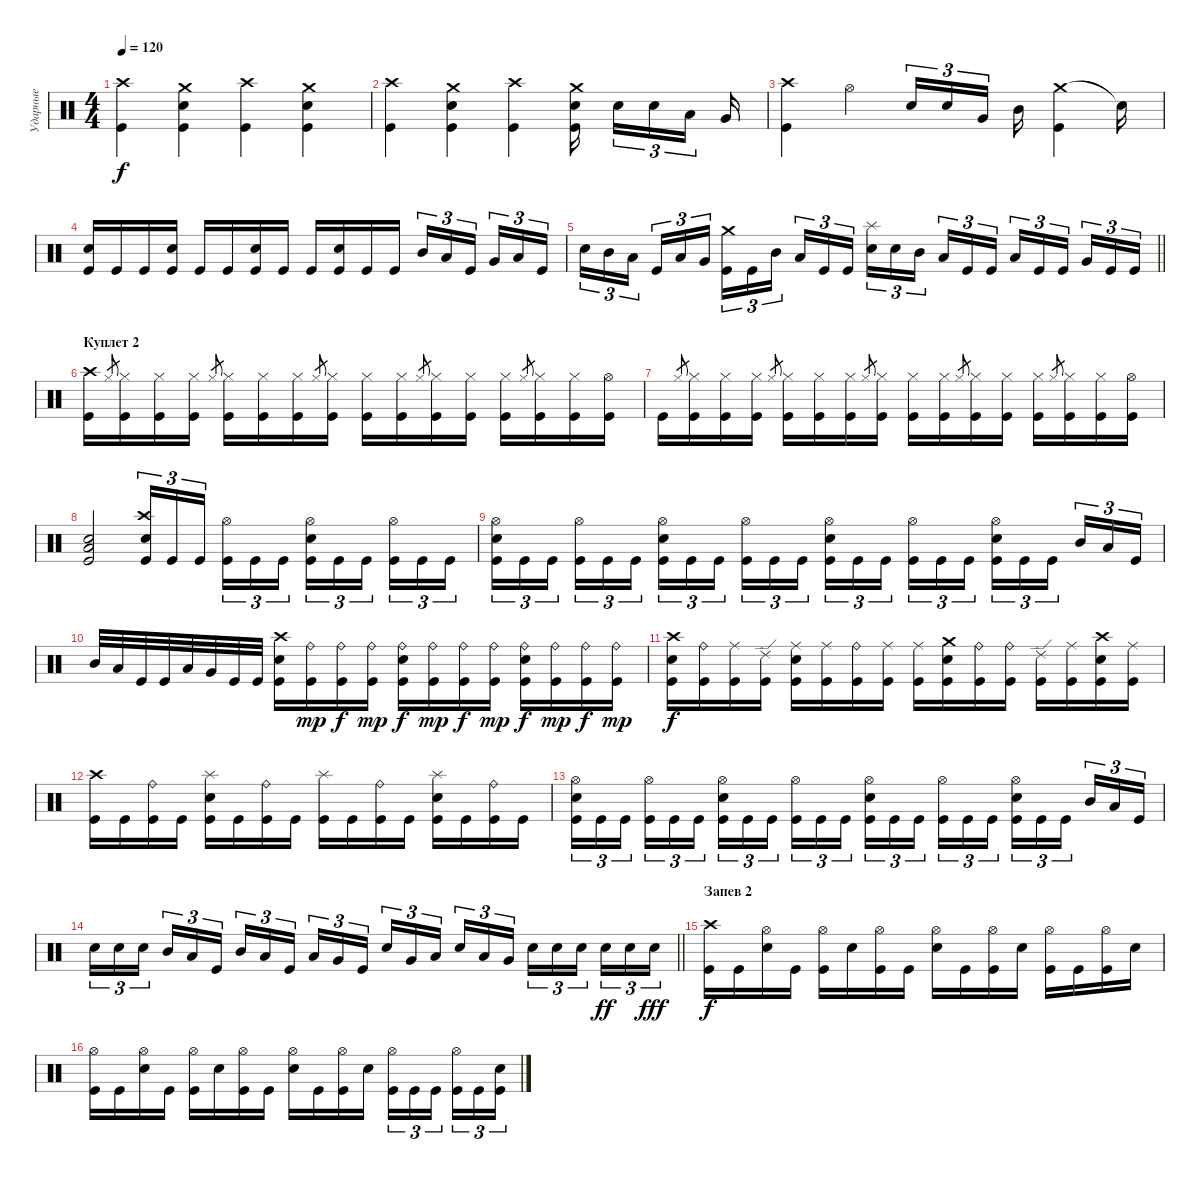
\track ("Ударные" "Ударные") {instrument percussion}
\staff {score}
\articulation defaults
\ts (4 4)
\tempo 120
\clef neutral
\ks c
("Kick (hit)" "Crash high (hit)").4{dy f} ("Kick (hit)" "Snare (hit) 2" "Crash medium (hit)").4 ("Kick (hit)" "Crash high (hit)").4 ("Kick (hit)" "Snare (hit) 2" "Crash medium (hit)").4 |
("Kick (hit)" "Crash high (hit)").4 ("Kick (hit)" "Snare (hit) 2" "Crash medium (hit)").4 ("Kick (hit)" "Crash high (hit)").4 ("Kick (hit)" "Snare (hit) 2" "Crash medium (hit)").16 "Snare (hit) 2".16{tu (3 2)} "Snare (hit) 2".16{tu (3 2)} "Low Tom (hit)".16{tu (3 2)} "Very Low Tom (hit)".16 |
("Kick (hit)" "Crash high (hit)").4 "Hi-Hat (open)".4 "Snare (hit) 2".16{tu (3 2)} "Snare (hit) 2".16{tu (3 2)} "Very Low Tom (hit)".16{tu (3 2)} "Mid Tom (hit)".16 ("Crash medium (hit)" "Kick (hit)").4 "Snare (hit)"{t}.16 |
("Kick (hit)" "Snare (hit) 2").16 "Kick (hit)".16 "Kick (hit)".16 ("Kick (hit)" "Snare (hit) 2").16 "Kick (hit)".16 "Kick (hit)".16 ("Kick (hit)" "Snare (hit) 2").16 "Kick (hit)".16 "Kick (hit)".16 ("Kick (hit)" "Snare (hit) 2").16 "Kick (hit)".16 "Kick (hit)".16 "Mid Tom (hit)".16{tu (3 2)} "Low Tom (hit)".16{tu (3 2)} "Kick (hit)".16{tu (3 2)} "Very Low Tom (hit)".16{tu (3 2)} "Low Floor Tom (hit)".16{tu (3 2)} "Kick (hit)".16{tu (3 2)} |
\barLineRight lightlight "Snare (hit) 2".16{tu (3 2)} "Mid Tom (hit)".16{tu (3 2)} "Low Tom (hit)".16{tu (3 2)} "Kick (hit)".16{tu (3 2)} "Low Tom (hit)".16{tu (3 2)} "Very Low Tom (hit)".16{tu (3 2)}
("Kick (hit)" "Crash medium (hit)").16{tu (3 2)} "Kick (hit)".16{tu (3 2)} "Mid Tom (hit)".16{tu (3 2)} "Low Tom (hit)".16{tu (3 2)} "Kick (hit)".16{tu (3 2)} "Kick (hit)".16{tu (3 2)} ("Snare (hit) 2" "Splash (hit)").16{tu (3 2)} "Snare (hit) 2".16{tu (3 2)} "Mid Tom (hit)".16{tu (3 2)} "Low Tom (hit)".16{tu (3 2)} "Kick (hit)".16{tu (3 2)} "Kick (hit)".16{tu (3 2)} "Low Tom (hit)".16{tu (3 2)} "Kick (hit)".16{tu (3 2)} "Kick (hit)".16{tu (3 2)} "Very Low Tom (hit)".16{tu (3 2)} "Kick (hit)".16{tu (3 2)} "Kick (hit)".16{tu (3 2)} |
\section ("" "Куплет 2")
("Kick (hit)" "Crash high (hit)").16 "Hi-Hat (closed)".8{gr} ("Hi-Hat (closed)" "Kick (hit)").16 ("Hi-Hat (closed)" "Kick (hit)").16 ("Hi-Hat (closed)" "Kick (hit)").16 "Hi-Hat (closed)".8{gr} ("Hi-Hat (closed)" "Kick (hit)").16 ("Hi-Hat (closed)" "Kick (hit)").16 ("Hi-Hat (closed)" "Kick (hit)").16 "Hi-Hat (closed)".8{gr} ("Hi-Hat (closed)" "Kick (hit)").16 ("Hi-Hat (closed)" "Kick (hit)").16 ("Hi-Hat (closed)" "Kick (hit)").16 "Hi-Hat (closed)".8{gr} ("Hi-Hat (closed)" "Kick (hit)").16 ("Hi-Hat (closed)" "Kick (hit)").16 ("Hi-Hat (closed)" "Kick (hit)").16 "Hi-Hat (closed)".8{gr} ("Hi-Hat (closed)" "Kick (hit)").16 ("Hi-Hat (closed)" "Kick (hit)").16 ("Hi-Hat (open)" "Kick (hit)").16 |
"Kick (hit)".16 "Hi-Hat (closed)".8{gr} ("Hi-Hat (closed)" "Kick (hit)").16 ("Hi-Hat (closed)" "Kick (hit)").16 ("Hi-Hat (closed)" "Kick (hit)").16 "Hi-Hat (closed)".8{gr} ("Hi-Hat (closed)" "Kick (hit)").16 ("Hi-Hat (closed)" "Kick (hit)").16 ("Hi-Hat (closed)" "Kick (hit)").16 "Hi-Hat (closed)".8{gr} ("Hi-Hat (closed)" "Kick (hit)").16 ("Hi-Hat (closed)" "Kick (hit)").16 ("Hi-Hat (closed)" "Kick (hit)").16 "Hi-Hat (closed)".8{gr} ("Hi-Hat (closed)" "Kick (hit)").16 ("Hi-Hat (closed)" "Kick (hit)").16 ("Hi-Hat (closed)" "Kick (hit)").16 "Hi-Hat (closed)".8{gr} ("Hi-Hat (closed)" "Kick (hit)").16 ("Hi-Hat (closed)" "Kick (hit)").16 ("Hi-Hat (open)" "Kick (hit)").16 |
("Kick (hit)" "Snare (hit) 2" "Low Floor Tom (hit)").2 ("Kick (hit)" "Crash high (hit)" "Snare (hit) 2").16{tu (3 2)} "Kick (hit)".16{tu (3 2)} "Kick (hit)".16{tu (3 2)} ("Kick (hit)" "Hi-Hat (open)").16{tu (3 2)} "Kick (hit)".16{tu (3 2)} "Kick (hit)".16{tu (3 2)} ("Kick (hit)" "Hi-Hat (open)" "Snare (hit) 2").16{tu (3 2)} "Kick (hit)".16{tu (3 2)} "Kick (hit)".16{tu (3 2)} ("Kick (hit)" "Hi-Hat (open)").16{tu (3 2)} "Kick (hit)".16{tu (3 2)} "Kick (hit)".16{tu (3 2)} |
("Kick (hit)" "Hi-Hat (open)" "Snare (hit) 2").16{tu (3 2)} "Kick (hit)".16{tu (3 2)} "Kick (hit)".16{tu (3 2)} ("Kick (hit)" "Hi-Hat (open)").16{tu (3 2)} "Kick (hit)".16{tu (3 2)} "Kick (hit)".16{tu (3 2)} ("Kick (hit)" "Hi-Hat (open)" "Snare (hit) 2").16{tu (3 2)} "Kick (hit)".16{tu (3 2)} "Kick (hit)".16{tu (3 2)} ("Kick (hit)" "Hi-Hat (open)").16{tu (3 2)} "Kick (hit)".16{tu (3 2)} "Kick (hit)".16{tu (3 2)} ("Kick (hit)" "Hi-Hat (open)" "Snare (hit) 2").16{tu (3 2)} "Kick (hit)".16{tu (3 2)} "Kick (hit)".16{tu (3 2)} ("Kick (hit)" "Hi-Hat (open)").16{tu (3 2)} "Kick (hit)".16{tu (3 2)} "Kick (hit)".16{tu (3 2)} ("Kick (hit)" "Hi-Hat (open)" "Snare (hit) 2").16{tu (3 2)} "Kick (hit)".16{tu (3 2)} "Kick (hit)".16{tu (3 2)} "Mid Tom (hit)".16{tu (3 2)} "Low Tom (hit)".16{tu (3 2)} "Kick (hit)".16{tu (3 2)} |
"Mid Tom (hit)".32 "Low Tom (hit)".32 "Kick (hit)".32 "Kick (hit)".32 "Low Tom (hit)".32 "Very Low Tom (hit)".32 "Kick (hit)".32 "Kick (hit)".32 ("Kick (hit)" "Snare (hit) 2" "Crash high (hit)").16 ("Kick (hit)" "Ride (bell)").16{dy mp} ("Kick (hit)" "Ride (bell)").16{dy f} ("Kick (hit)" "Ride (bell)").16{dy mp} ("Kick (hit)" "Snare (hit) 2" "Ride (bell)").16{dy f} ("Kick (hit)" "Ride (bell)").16{dy mp} ("Kick (hit)" "Ride (bell)").16{dy f} ("Kick (hit)" "Ride (bell)").16{dy mp} ("Kick (hit)" "Snare (hit) 2" "Ride (bell)").16{dy f} ("Kick (hit)" "Ride (bell)").16{dy mp} ("Kick (hit)" "Ride (bell)").16{dy f} ("Kick (hit)" "Ride (bell)").16{dy mp} |
("Crash high (hit)" "Kick (hit)" "Snare (hit) 2").16{dy f} ("Ride (bell)" "Kick (hit)").16 ("Ride (middle)" "Kick (hit)").16 ("Ride (edge) 2" "Kick (hit)").16 ("Ride (middle)" "Kick (hit)" "Snare (hit) 2").16 ("Ride (middle)" "Kick (hit)").16 ("Ride (bell)" "Kick (hit)").16 ("Ride (middle)" "Kick (hit)").16 ("Ride (middle)" "Kick (hit)").16 ("Crash medium (hit)" "Kick (hit)" "Snare (hit) 2").16 ("Ride (bell)" "Kick (hit)").16 ("Ride (bell)" "Kick (hit)").16 ("Ride (edge) 2" "Kick (hit)").16 ("Ride (middle)" "Kick (hit)").16 ("Crash high (hit)" "Kick (hit)" "Snare (hit) 2").16 ("Ride (middle)" "Kick (hit)").16 |
("Kick (hit)" "Crash high (hit)").16 "Kick (hit)".16 ("Kick (hit)" "Ride (bell)").16 "Kick (hit)".16 ("Kick (hit)" "Splash (hit)" "Snare (hit) 2").16 "Kick (hit)".16 ("Kick (hit)" "Ride (bell)").16 "Kick (hit)".16 ("Kick (hit)" "Splash (hit)").16 "Kick (hit)".16 ("Kick (hit)" "Ride (bell)").16 "Kick (hit)".16 ("Kick (hit)" "Splash (hit)" "Snare (hit) 2").16 "Kick (hit)".16 ("Kick (hit)" "Ride (bell)").16 "Kick (hit)".16 |
("Kick (hit)" "Hi-Hat (open)" "Snare (hit) 2").16{tu (3 2)} "Kick (hit)".16{tu (3 2)} "Kick (hit)".16{tu (3 2)} ("Kick (hit)" "Hi-Hat (open)").16{tu (3 2)} "Kick (hit)".16{tu (3 2)} "Kick (hit)".16{tu (3 2)} ("Kick (hit)" "Hi-Hat (open)" "Snare (hit) 2").16{tu (3 2)} "Kick (hit)".16{tu (3 2)} "Kick (hit)".16{tu (3 2)} ("Kick (hit)" "Hi-Hat (open)").16{tu (3 2)} "Kick (hit)".16{tu (3 2)} "Kick (hit)".16{tu (3 2)} ("Kick (hit)" "Hi-Hat (open)" "Snare (hit) 2").16{tu (3 2)} "Kick (hit)".16{tu (3 2)} "Kick (hit)".16{tu (3 2)} ("Kick (hit)" "Hi-Hat (open)").16{tu (3 2)} "Kick (hit)".16{tu (3 2)} "Kick (hit)".16{tu (3 2)} ("Kick (hit)" "Hi-Hat (open)" "Snare (hit) 2").16{tu (3 2)} "Kick (hit)".16{tu (3 2)} "Kick (hit)".16{tu (3 2)} "Mid Tom (hit)".16{tu (3 2)} "Low Tom (hit)".16{tu (3 2)} "Kick (hit)".16{tu (3 2)} |
\barLineRight lightlight "Snare (hit) 2".16{tu (3 2)} "Snare (hit) 2".16{tu (3 2)} "Snare (hit) 2".16{tu (3 2)} "Mid Tom (hit)".16{tu (3 2)} "Low Tom (hit)".16{tu (3 2)} "Kick (hit)".16{tu (3 2)} "Mid Tom (hit)".16{tu (3 2)} "Low Tom (hit)".16{tu (3 2)} "Kick (hit)".16{tu (3 2)} "Low Tom (hit)".16{tu (3 2)} "Very Low Tom (hit)".16{tu (3 2)} "Kick (hit)".16{tu (3 2)} "Snare (hit) 2".16{tu (3 2)} "Very Low Tom (hit)".16{tu (3 2)} "Low Floor Tom (hit)".16{tu (3 2)} "Snare (hit) 2".16{tu (3 2)} "Low Tom (hit)".16{tu (3 2)} "Very Low Tom (hit)".16{tu (3 2)} "Snare (hit) 2".16{tu (3 2)} "Snare (hit) 2".16{tu (3 2)} "Snare (hit) 2".16{tu (3 2)} "Snare (hit) 2".16{tu (3 2) dy ff} "Snare (hit) 2".16{tu (3 2)} "Snare (hit) 2".16{tu (3 2) dy fff}
|
\section ("" "Запев 2")
("Kick (hit)" "Crash high (hit)").16{dy f} "Kick (hit)".16 ("Snare (hit) 2" "Hi-Hat (open)").16 "Kick (hit)".16 ("Kick (hit)" "Hi-Hat (open)").16 "Snare (hit) 2".16 ("Kick (hit)" "Hi-Hat (open)").16 "Kick (hit)".16 ("Snare (hit) 2" "Hi-Hat (open)").16 "Kick (hit)".16 ("Kick (hit)" "Hi-Hat (open)").16 "Snare (hit) 2".16 ("Kick (hit)" "Hi-Hat (open)").16 "Kick (hit)".16 ("Kick (hit)" "Hi-Hat (open)").16 "Snare (hit) 2".16 |
("Kick (hit)" "Hi-Hat (open)").16 "Kick (hit)".16 ("Snare (hit) 2" "Hi-Hat (open)").16 "Kick (hit)".16 ("Kick (hit)" "Hi-Hat (open)").16 "Snare (hit) 2".16 ("Kick (hit)" "Hi-Hat (open)").16 "Kick (hit)".16 ("Snare (hit) 2" "Hi-Hat (open)").16 "Kick (hit)".16 ("Kick (hit)" "Hi-Hat (open)").16 "Snare (hit) 2".16 ("Kick (hit)" "Hi-Hat (open)").16{tu (3 2)} "Kick (hit)".16{tu (3 2)} "Kick (hit)".16{tu (3 2)} ("Kick (hit)" "Hi-Hat (open)").16{tu (3 2)} "Kick (hit)".16{tu (3 2)} ("Kick (hit)" "Snare (hit) 2").16{tu (3 2)}
